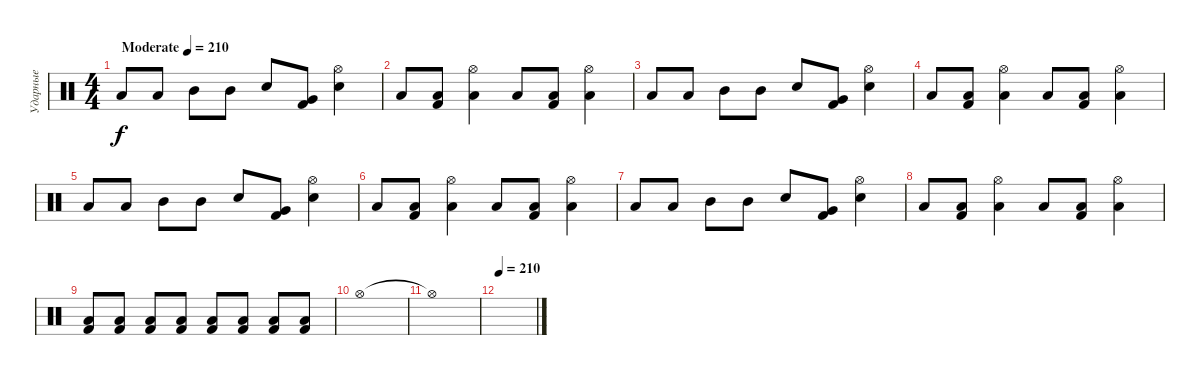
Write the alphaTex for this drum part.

\track ("Ударные" "Ударные") {instrument percussion}
\staff {score}
\articulation defaults
\ts (4 4)
\tempo (210 "Moderate")
\tempo 150
\tempo (210 "Moderate")
\clef neutral
\ks c "Low Tom (hit)".8{dy f} "Low Tom (hit)".8 "Mid Tom (hit)".8 "Mid Tom (hit)".8 "Electric Snare (hit)".8
("Very Low Tom (hit)" "Kick (hit) 2").8 ("Electric Snare (hit)" "Hi-Hat (open)").4 |
"Low Tom (hit)".8 ("Low Tom (hit)" "Kick (hit) 2").8 ("Low Tom (hit)" "Hi-Hat (open)").4 "Low Tom (hit)".8 ("Low Tom (hit)" "Kick (hit) 2").8 ("Low Tom (hit)" "Hi-Hat (open)").4 |
"Low Tom (hit)".8 "Low Tom (hit)".8 "Mid Tom (hit)".8 "Mid Tom (hit)".8 "Electric Snare (hit)".8 ("Very Low Tom (hit)" "Kick (hit) 2").8 ("Electric Snare (hit)" "Hi-Hat (open)").4 |
"Low Tom (hit)".8 ("Low Tom (hit)" "Kick (hit) 2").8 ("Low Tom (hit)" "Hi-Hat (open)").4 "Low Tom (hit)".8 ("Low Tom (hit)" "Kick (hit) 2").8 ("Low Tom (hit)" "Hi-Hat (open)").4 |
"Low Tom (hit)".8 "Low Tom (hit)".8 "Mid Tom (hit)".8 "Mid Tom (hit)".8 "Electric Snare (hit)".8 ("Very Low Tom (hit)" "Kick (hit) 2").8 ("Electric Snare (hit)" "Hi-Hat (open)").4 |
"Low Tom (hit)".8 ("Low Tom (hit)" "Kick (hit) 2").8 ("Low Tom (hit)" "Hi-Hat (open)").4 "Low Tom (hit)".8 ("Low Tom (hit)" "Kick (hit) 2").8 ("Low Tom (hit)" "Hi-Hat (open)").4 |
"Low Tom (hit)".8 "Low Tom (hit)".8 "Mid Tom (hit)".8 "Mid Tom (hit)".8 "Electric Snare (hit)".8 ("Very Low Tom (hit)" "Kick (hit) 2").8 ("Electric Snare (hit)" "Hi-Hat (open)").4 |
"Low Tom (hit)".8 ("Low Tom (hit)" "Kick (hit) 2").8 ("Low Tom (hit)" "Hi-Hat (open)").4 "Low Tom (hit)".8 ("Low Tom (hit)" "Kick (hit) 2").8 ("Low Tom (hit)" "Hi-Hat (open)").4 |
("Kick (hit) 2" "Low Tom (hit)").8 ("Kick (hit) 2" "Low Tom (hit)").8 ("Kick (hit) 2" "Low Tom (hit)").8 ("Kick (hit) 2" "Low Tom (hit)").8 ("Kick (hit) 2" "Low Tom (hit)").8 ("Kick (hit) 2" "Low Tom (hit)").8 ("Kick (hit) 2" "Low Tom (hit)").8 ("Kick (hit) 2" "Low Tom (hit)").8 |
"Hi-Hat (open)".1 |
"Hi-Hat (open)"{t}.1 |
\tempo 210
